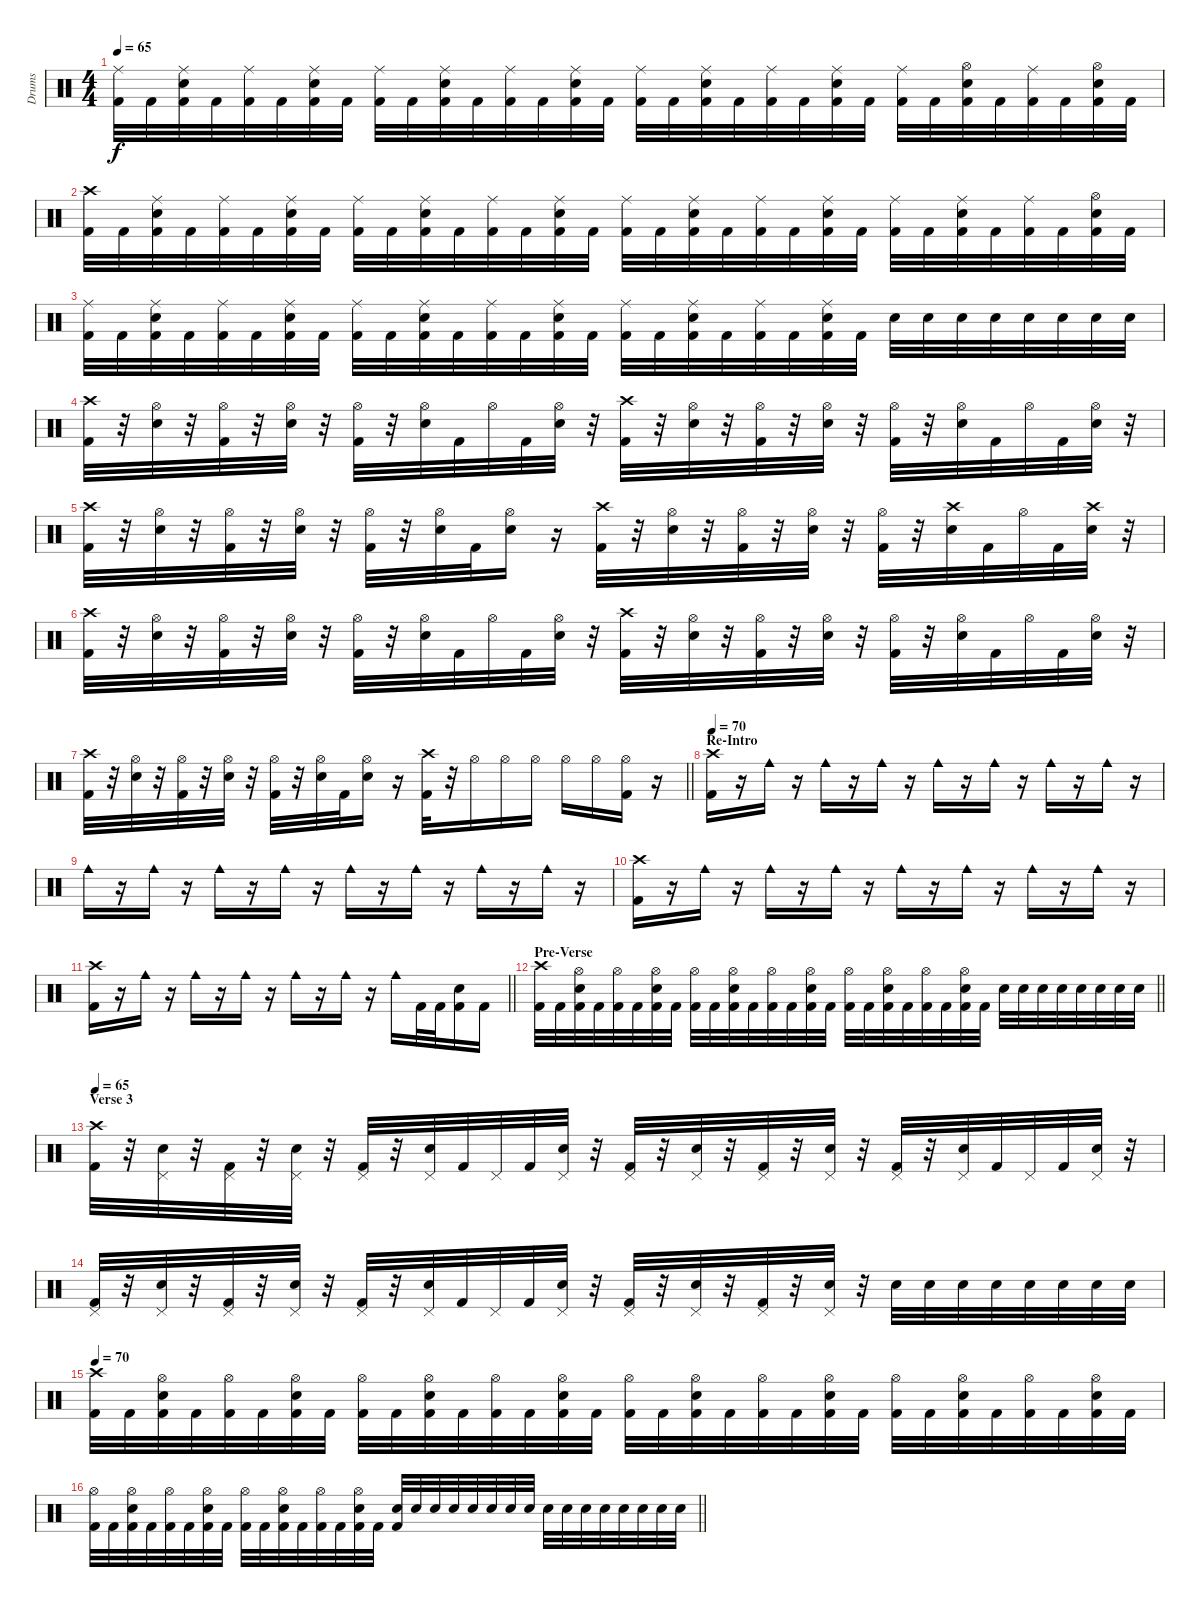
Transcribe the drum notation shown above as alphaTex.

\track ("Drums" "Drums") {instrument percussion}
\staff {score}
\articulation defaults
\ts (4 4)
\tempo 65
\clef neutral
\ks c
("Ride (middle)" "Kick (hit) 2").32{dy f} "Kick (hit) 2".32 ("Ride (middle)" "Snare (hit) 2" "Kick (hit) 2").32 "Kick (hit) 2".32 ("Ride (middle)" "Kick (hit) 2").32 "Kick (hit) 2".32 ("Ride (middle)" "Snare (hit) 2" "Kick (hit) 2").32 "Kick (hit) 2".32 ("Ride (middle)" "Kick (hit) 2").32 "Kick (hit) 2".32 ("Ride (middle)" "Snare (hit) 2" "Kick (hit) 2").32 "Kick (hit) 2".32 ("Ride (middle)" "Kick (hit) 2").32 "Kick (hit) 2".32 ("Ride (middle)" "Snare (hit) 2" "Kick (hit) 2").32 "Kick (hit) 2".32 ("Ride (middle)" "Kick (hit) 2").32 "Kick (hit) 2".32 ("Ride (middle)" "Snare (hit) 2" "Kick (hit) 2").32 "Kick (hit) 2".32 ("Ride (middle)" "Kick (hit) 2").32 "Kick (hit) 2".32 ("Ride (middle)" "Snare (hit) 2" "Kick (hit) 2").32 "Kick (hit) 2".32 ("Ride (middle)" "Kick (hit) 2").32 "Kick (hit) 2".32 ("Hi-Hat (open)" "Snare (hit) 2" "Kick (hit) 2").32 "Kick (hit) 2".32 ("Ride (middle)" "Kick (hit) 2").32 "Kick (hit) 2".32 ("Hi-Hat (open)" "Snare (hit) 2" "Kick (hit) 2").32 "Kick (hit) 2".32 |
("Crash high (hit)" "Kick (hit) 2").32 "Kick (hit) 2".32 ("Ride (middle)" "Snare (hit) 2" "Kick (hit) 2").32 "Kick (hit) 2".32 ("Ride (middle)" "Kick (hit) 2").32 "Kick (hit) 2".32 ("Ride (middle)" "Snare (hit) 2" "Kick (hit) 2").32 "Kick (hit) 2".32 ("Ride (middle)" "Kick (hit) 2").32 "Kick (hit) 2".32 ("Ride (middle)" "Snare (hit) 2" "Kick (hit) 2").32 "Kick (hit) 2".32 ("Ride (middle)" "Kick (hit) 2").32 "Kick (hit) 2".32 ("Ride (middle)" "Snare (hit) 2" "Kick (hit) 2").32 "Kick (hit) 2".32 ("Ride (middle)" "Kick (hit) 2").32 "Kick (hit) 2".32 ("Ride (middle)" "Snare (hit) 2" "Kick (hit) 2").32 "Kick (hit) 2".32 ("Ride (middle)" "Kick (hit) 2").32 "Kick (hit) 2".32 ("Ride (middle)" "Snare (hit) 2" "Kick (hit) 2").32 "Kick (hit) 2".32 ("Ride (middle)" "Kick (hit) 2").32 "Kick (hit) 2".32 ("Ride (middle)" "Snare (hit) 2" "Kick (hit) 2").32 "Kick (hit) 2".32 ("Ride (middle)" "Kick (hit) 2").32 "Kick (hit) 2".32 ("Hi-Hat (open)" "Snare (hit) 2" "Kick (hit) 2").32 "Kick (hit) 2".32 |
("Ride (middle)" "Kick (hit) 2").32 "Kick (hit) 2".32 ("Ride (middle)" "Snare (hit) 2" "Kick (hit) 2").32 "Kick (hit) 2".32 ("Ride (middle)" "Kick (hit) 2").32 "Kick (hit) 2".32 ("Ride (middle)" "Snare (hit) 2" "Kick (hit) 2").32 "Kick (hit) 2".32 ("Ride (middle)" "Kick (hit) 2").32 "Kick (hit) 2".32 ("Ride (middle)" "Snare (hit) 2" "Kick (hit) 2").32 "Kick (hit) 2".32 ("Ride (middle)" "Kick (hit) 2").32 "Kick (hit) 2".32 ("Ride (middle)" "Snare (hit) 2" "Kick (hit) 2").32 "Kick (hit) 2".32 ("Ride (middle)" "Kick (hit) 2").32 "Kick (hit) 2".32 ("Ride (middle)" "Snare (hit) 2" "Kick (hit) 2").32 "Kick (hit) 2".32 ("Ride (middle)" "Kick (hit) 2").32 "Kick (hit) 2".32 ("Ride (middle)" "Snare (hit) 2" "Kick (hit) 2").32 "Kick (hit) 2".32 "Snare (hit) 2".32 "Snare (hit) 2".32 "Snare (hit) 2".32 "Snare (hit) 2".32 "Snare (hit) 2".32 "Snare (hit) 2".32 "Snare (hit) 2".32 "Snare (hit) 2".32 |
("Crash high (hit)" "Kick (hit) 2").32 r.32 ("Hi-Hat (open)" "Snare (hit) 2").32 r.32 ("Hi-Hat (open)" "Kick (hit) 2").32 r.32 ("Hi-Hat (open)" "Snare (hit) 2").32 r.32 ("Hi-Hat (open)" "Kick (hit) 2").32 r.32 ("Hi-Hat (open)" "Snare (hit) 2").32 "Kick (hit) 2".32 "Hi-Hat (open)".32 "Kick (hit) 2".32 ("Hi-Hat (open)" "Snare (hit) 2").32 r.32 ("Crash high (hit)" "Kick (hit) 2").32 r.32 ("Hi-Hat (open)" "Snare (hit) 2").32 r.32 ("Hi-Hat (open)" "Kick (hit) 2").32 r.32 ("Hi-Hat (open)" "Snare (hit) 2").32 r.32 ("Hi-Hat (open)" "Kick (hit) 2").32 r.32 ("Hi-Hat (open)" "Snare (hit) 2").32 "Kick (hit) 2".32 "Hi-Hat (open)".32 "Kick (hit) 2".32 ("Hi-Hat (open)" "Snare (hit) 2").32 r.32 |
("Crash high (hit)" "Kick (hit) 2").32 r.32 ("Hi-Hat (open)" "Snare (hit) 2").32 r.32 ("Hi-Hat (open)" "Kick (hit) 2").32 r.32 ("Hi-Hat (open)" "Snare (hit) 2").32 r.32 ("Hi-Hat (open)" "Kick (hit) 2").32 r.32 ("Hi-Hat (open)" "Snare (hit) 2").32 "Kick (hit) 2".32 ("Hi-Hat (open)" "Snare (hit) 2").16 r.16 ("Crash high (hit)" "Kick (hit) 2").32 r.32 ("Hi-Hat (open)" "Snare (hit) 2").32 r.32 ("Hi-Hat (open)" "Kick (hit) 2").32 r.32 ("Hi-Hat (open)" "Snare (hit) 2").32 r.32 ("Hi-Hat (open)" "Kick (hit) 2").32 r.32 ("Crash high (hit)" "Snare (hit) 2").32 "Kick (hit) 2".32 "Hi-Hat (open)".32 "Kick (hit) 2".32 ("Crash high (hit)" "Snare (hit) 2").32 r.32 |
("Crash high (hit)" "Kick (hit) 2").32 r.32 ("Hi-Hat (open)" "Snare (hit) 2").32 r.32 ("Hi-Hat (open)" "Kick (hit) 2").32 r.32 ("Hi-Hat (open)" "Snare (hit) 2").32 r.32 ("Hi-Hat (open)" "Kick (hit) 2").32 r.32 ("Hi-Hat (open)" "Snare (hit) 2").32 "Kick (hit) 2".32 "Hi-Hat (open)".32 "Kick (hit) 2".32 ("Hi-Hat (open)" "Snare (hit) 2").32 r.32 ("Crash high (hit)" "Kick (hit) 2").32 r.32 ("Hi-Hat (open)" "Snare (hit) 2").32 r.32 ("Hi-Hat (open)" "Kick (hit) 2").32 r.32 ("Hi-Hat (open)" "Snare (hit) 2").32 r.32 ("Hi-Hat (open)" "Kick (hit) 2").32 r.32 ("Hi-Hat (open)" "Snare (hit) 2").32 "Kick (hit) 2".32 "Hi-Hat (open)".32 "Kick (hit) 2".32 ("Hi-Hat (open)" "Snare (hit) 2").32 r.32 |
\barLineRight lightlight
("Crash high (hit)" "Kick (hit) 2").32 r.32 ("Hi-Hat (open)" "Snare (hit) 2").32 r.32 ("Hi-Hat (open)" "Kick (hit) 2").32 r.32 ("Hi-Hat (open)" "Snare (hit) 2").32 r.32 ("Hi-Hat (open)" "Kick (hit) 2").32 r.32 ("Hi-Hat (open)" "Snare (hit) 2").32 "Kick (hit) 2".32 ("Hi-Hat (open)" "Snare (hit) 2").16 r.16 ("Crash high (hit)" "Kick (hit) 2").32 r.32 "Hi-Hat (open)".16 "Hi-Hat (open)".16 "Hi-Hat (open)".16 "Hi-Hat (open)".16 "Hi-Hat (open)".16 ("Hi-Hat (open)" "Kick (hit) 2").16 r.16 |
\section ("" "Re-Intro")
\tempo 70
("Crash high (hit)" "Kick (hit) 2").16 r.16 "Cowbell medium (hit)".16 r.16 "Cowbell medium (hit)".16 r.16 "Cowbell medium (hit)".16 r.16 "Cowbell medium (hit)".16 r.16 "Cowbell medium (hit)".16 r.16 "Cowbell medium (hit)".16 r.16 "Cowbell medium (hit)".16 r.16 |
"Cowbell medium (hit)".16 r.16 "Cowbell medium (hit)".16 r.16 "Cowbell medium (hit)".16 r.16 "Cowbell medium (hit)".16 r.16 "Cowbell medium (hit)".16 r.16 "Cowbell medium (hit)".16 r.16 "Cowbell medium (hit)".16 r.16 "Cowbell medium (hit)".16 r.16 |
("Crash high (hit)" "Kick (hit) 2").16 r.16 "Cowbell medium (hit)".16 r.16 "Cowbell medium (hit)".16 r.16 "Cowbell medium (hit)".16 r.16 "Cowbell medium (hit)".16 r.16 "Cowbell medium (hit)".16 r.16 "Cowbell medium (hit)".16 r.16 "Cowbell medium (hit)".16 r.16 |
\barLineRight lightlight
("Crash high (hit)" "Kick (hit) 2").16 r.16 "Cowbell medium (hit)".16 r.16 "Cowbell medium (hit)".16 r.16 "Cowbell medium (hit)".16 r.16 "Cowbell medium (hit)".16 r.16 "Cowbell medium (hit)".16 r.16 "Cowbell medium (hit)".16 "Kick (hit) 2".32 "Kick (hit) 2".32 ("Snare (hit) 2" "Kick (hit) 2").16 "Kick (hit) 2".16 |
\section ("" "Pre-Verse")
\barLineRight lightlight
("Crash high (hit)" "Kick (hit) 2").32 "Kick (hit) 2".32 ("Hi-Hat (open)" "Snare (hit) 2" "Kick (hit) 2").32 "Kick (hit) 2".32 ("Hi-Hat (open)" "Kick (hit) 2").32 "Kick (hit) 2".32 ("Hi-Hat (open)" "Snare (hit) 2" "Kick (hit) 2").32 "Kick (hit) 2".32 ("Hi-Hat (open)" "Kick (hit) 2").32 "Kick (hit) 2".32 ("Hi-Hat (open)" "Snare (hit) 2" "Kick (hit) 2").32 "Kick (hit) 2".32 ("Hi-Hat (open)" "Kick (hit) 2").32 "Kick (hit) 2".32 ("Hi-Hat (open)" "Snare (hit) 2" "Kick (hit) 2").32 "Kick (hit) 2".32 ("Hi-Hat (open)" "Kick (hit) 2").32 "Kick (hit) 2".32 ("Hi-Hat (open)" "Snare (hit) 2" "Kick (hit) 2").32 "Kick (hit) 2".32 ("Hi-Hat (open)" "Kick (hit) 2").32 "Kick (hit) 2".32 ("Hi-Hat (open)" "Snare (hit) 2" "Kick (hit) 2").32 "Kick (hit) 2".32 "Snare (hit) 2".32 "Snare (hit) 2".32 "Snare (hit) 2".32 "Snare (hit) 2".32 "Snare (hit) 2".32 "Snare (hit) 2".32 "Snare (hit) 2".32 "Snare (hit) 2".32 |
\section ("" "Verse 3")
\tempo 65
("Crash high (hit)" "Kick (hit) 2").32 r.32 ("Pedal Hi-Hat (hit)" "Snare (hit) 2").32 r.32 ("Pedal Hi-Hat (hit)" "Kick (hit) 2").32 r.32 ("Pedal Hi-Hat (hit)" "Snare (hit) 2").32 r.32 ("Pedal Hi-Hat (hit)" "Kick (hit) 2").32 r.32 ("Pedal Hi-Hat (hit)" "Snare (hit) 2").32 "Kick (hit) 2".32 "Pedal Hi-Hat (hit)".32 "Kick (hit) 2".32 ("Pedal Hi-Hat (hit)" "Snare (hit) 2").32 r.32 ("Pedal Hi-Hat (hit)" "Kick (hit) 2").32 r.32 ("Pedal Hi-Hat (hit)" "Snare (hit) 2").32 r.32 ("Pedal Hi-Hat (hit)" "Kick (hit) 2").32 r.32 ("Pedal Hi-Hat (hit)" "Snare (hit) 2").32 r.32 ("Pedal Hi-Hat (hit)" "Kick (hit) 2").32 r.32 ("Pedal Hi-Hat (hit)" "Snare (hit) 2").32 "Kick (hit) 2".32 "Pedal Hi-Hat (hit)".32 "Kick (hit) 2".32 ("Pedal Hi-Hat (hit)" "Snare (hit) 2").32 r.32 |
("Pedal Hi-Hat (hit)" "Kick (hit) 2").32 r.32 ("Pedal Hi-Hat (hit)" "Snare (hit) 2").32 r.32 ("Pedal Hi-Hat (hit)" "Kick (hit) 2").32 r.32 ("Pedal Hi-Hat (hit)" "Snare (hit) 2").32 r.32 ("Pedal Hi-Hat (hit)" "Kick (hit) 2").32 r.32 ("Pedal Hi-Hat (hit)" "Snare (hit) 2").32 "Kick (hit) 2".32 "Pedal Hi-Hat (hit)".32 "Kick (hit) 2".32 ("Pedal Hi-Hat (hit)" "Snare (hit) 2").32 r.32 ("Pedal Hi-Hat (hit)" "Kick (hit) 2").32 r.32 ("Pedal Hi-Hat (hit)" "Snare (hit) 2").32 r.32 ("Pedal Hi-Hat (hit)" "Kick (hit) 2").32 r.32 ("Pedal Hi-Hat (hit)" "Snare (hit) 2").32 r.32 "Snare (hit) 2".32 "Snare (hit) 2".32 "Snare (hit) 2".32 "Snare (hit) 2".32 "Snare (hit) 2".32 "Snare (hit) 2".32 "Snare (hit) 2".32 "Snare (hit) 2".32 |
\tempo 70
("Crash high (hit)" "Kick (hit) 2").32 "Kick (hit) 2".32 ("Hi-Hat (open)" "Snare (hit) 2" "Kick (hit) 2").32 "Kick (hit) 2".32 ("Hi-Hat (open)" "Kick (hit) 2").32 "Kick (hit) 2".32 ("Hi-Hat (open)" "Snare (hit) 2" "Kick (hit) 2").32 "Kick (hit) 2".32 ("Hi-Hat (open)" "Kick (hit) 2").32 "Kick (hit) 2".32 ("Hi-Hat (open)" "Snare (hit) 2" "Kick (hit) 2").32 "Kick (hit) 2".32 ("Hi-Hat (open)" "Kick (hit) 2").32 "Kick (hit) 2".32 ("Hi-Hat (open)" "Snare (hit) 2" "Kick (hit) 2").32 "Kick (hit) 2".32 ("Hi-Hat (open)" "Kick (hit) 2").32 "Kick (hit) 2".32 ("Hi-Hat (open)" "Snare (hit) 2" "Kick (hit) 2").32 "Kick (hit) 2".32 ("Hi-Hat (open)" "Kick (hit) 2").32 "Kick (hit) 2".32 ("Hi-Hat (open)" "Snare (hit) 2" "Kick (hit) 2").32 "Kick (hit) 2".32 ("Hi-Hat (open)" "Kick (hit) 2").32 "Kick (hit) 2".32 ("Hi-Hat (open)" "Snare (hit) 2" "Kick (hit) 2").32 "Kick (hit) 2".32 ("Hi-Hat (open)" "Kick (hit) 2").32 "Kick (hit) 2".32 ("Hi-Hat (open)" "Snare (hit) 2" "Kick (hit) 2").32 "Kick (hit) 2".32 |
\barLineRight lightlight
("Hi-Hat (open)" "Kick (hit) 2").32 "Kick (hit) 2".32 ("Hi-Hat (open)" "Snare (hit) 2" "Kick (hit) 2").32 "Kick (hit) 2".32 ("Hi-Hat (open)" "Kick (hit) 2").32 "Kick (hit) 2".32 ("Hi-Hat (open)" "Snare (hit) 2" "Kick (hit) 2").32 "Kick (hit) 2".32 ("Hi-Hat (open)" "Kick (hit) 2").32 "Kick (hit) 2".32 ("Hi-Hat (open)" "Snare (hit) 2" "Kick (hit) 2").32 "Kick (hit) 2".32 ("Hi-Hat (open)" "Kick (hit) 2").32 "Kick (hit) 2".32 ("Hi-Hat (open)" "Snare (hit) 2" "Kick (hit) 2").32 "Kick (hit) 2".32 ("Snare (hit) 2" "Kick (hit) 2").32 "Snare (hit) 2".32 "Snare (hit) 2".32 "Snare (hit) 2".32 "Snare (hit) 2".32 "Snare (hit) 2".32 "Snare (hit) 2".32 "Snare (hit) 2".32 "Snare (hit) 2".32 "Snare (hit) 2".32 "Snare (hit) 2".32 "Snare (hit) 2".32 "Snare (hit) 2".32 "Snare (hit) 2".32 "Snare (hit) 2".32 "Snare (hit) 2".32
